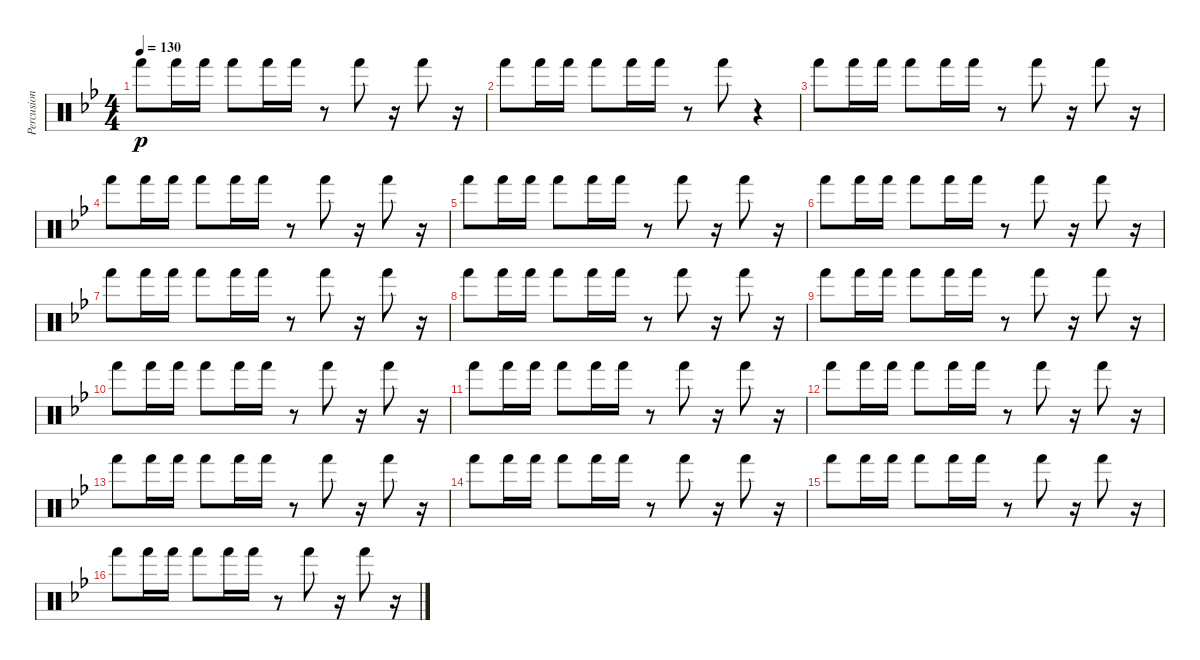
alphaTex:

\track ("Percusion III" "Percusion ") {instrument percussion}
\staff {score}
\articulation defaults
\ts (4 4)
\tempo 130
\clef neutral
\ks gminor "Hand (hit)".8{dy p} "Hand (hit)".16 "Hand (hit)".16 "Hand (hit)".8 "Hand (hit)".16 "Hand (hit)".16
r.8 "Hand (hit)".8 r.16 "Hand (hit)".8 r.16 |
"Hand (hit)".8 "Hand (hit)".16 "Hand (hit)".16 "Hand (hit)".8 "Hand (hit)".16 "Hand (hit)".16 r.8 "Hand (hit)".8 r.4 |
"Hand (hit)".8 "Hand (hit)".16 "Hand (hit)".16 "Hand (hit)".8 "Hand (hit)".16 "Hand (hit)".16 r.8 "Hand (hit)".8 r.16 "Hand (hit)".8 r.16 |
"Hand (hit)".8 "Hand (hit)".16 "Hand (hit)".16 "Hand (hit)".8 "Hand (hit)".16 "Hand (hit)".16 r.8 "Hand (hit)".8 r.16 "Hand (hit)".8 r.16 |
"Hand (hit)".8 "Hand (hit)".16 "Hand (hit)".16 "Hand (hit)".8 "Hand (hit)".16 "Hand (hit)".16 r.8 "Hand (hit)".8 r.16 "Hand (hit)".8 r.16 |
"Hand (hit)".8 "Hand (hit)".16 "Hand (hit)".16 "Hand (hit)".8 "Hand (hit)".16 "Hand (hit)".16 r.8 "Hand (hit)".8 r.16 "Hand (hit)".8 r.16 |
"Hand (hit)".8 "Hand (hit)".16 "Hand (hit)".16 "Hand (hit)".8 "Hand (hit)".16 "Hand (hit)".16 r.8 "Hand (hit)".8 r.16 "Hand (hit)".8 r.16 |
"Hand (hit)".8 "Hand (hit)".16 "Hand (hit)".16 "Hand (hit)".8 "Hand (hit)".16 "Hand (hit)".16 r.8 "Hand (hit)".8 r.16 "Hand (hit)".8 r.16 |
"Hand (hit)".8 "Hand (hit)".16 "Hand (hit)".16 "Hand (hit)".8 "Hand (hit)".16 "Hand (hit)".16 r.8 "Hand (hit)".8 r.16 "Hand (hit)".8 r.16 |
"Hand (hit)".8 "Hand (hit)".16 "Hand (hit)".16 "Hand (hit)".8 "Hand (hit)".16 "Hand (hit)".16 r.8 "Hand (hit)".8 r.16 "Hand (hit)".8 r.16 |
"Hand (hit)".8 "Hand (hit)".16 "Hand (hit)".16 "Hand (hit)".8 "Hand (hit)".16 "Hand (hit)".16 r.8 "Hand (hit)".8 r.16 "Hand (hit)".8 r.16 |
"Hand (hit)".8 "Hand (hit)".16 "Hand (hit)".16 "Hand (hit)".8 "Hand (hit)".16 "Hand (hit)".16 r.8 "Hand (hit)".8 r.16 "Hand (hit)".8 r.16 |
"Hand (hit)".8 "Hand (hit)".16 "Hand (hit)".16 "Hand (hit)".8 "Hand (hit)".16 "Hand (hit)".16 r.8 "Hand (hit)".8 r.16 "Hand (hit)".8 r.16 |
"Hand (hit)".8 "Hand (hit)".16 "Hand (hit)".16 "Hand (hit)".8 "Hand (hit)".16 "Hand (hit)".16 r.8 "Hand (hit)".8 r.16 "Hand (hit)".8 r.16 |
"Hand (hit)".8 "Hand (hit)".16 "Hand (hit)".16 "Hand (hit)".8 "Hand (hit)".16 "Hand (hit)".16 r.8 "Hand (hit)".8 r.16 "Hand (hit)".8 r.16 |
"Hand (hit)".8 "Hand (hit)".16 "Hand (hit)".16 "Hand (hit)".8 "Hand (hit)".16 "Hand (hit)".16 r.8 "Hand (hit)".8 r.16 "Hand (hit)".8 r.16
